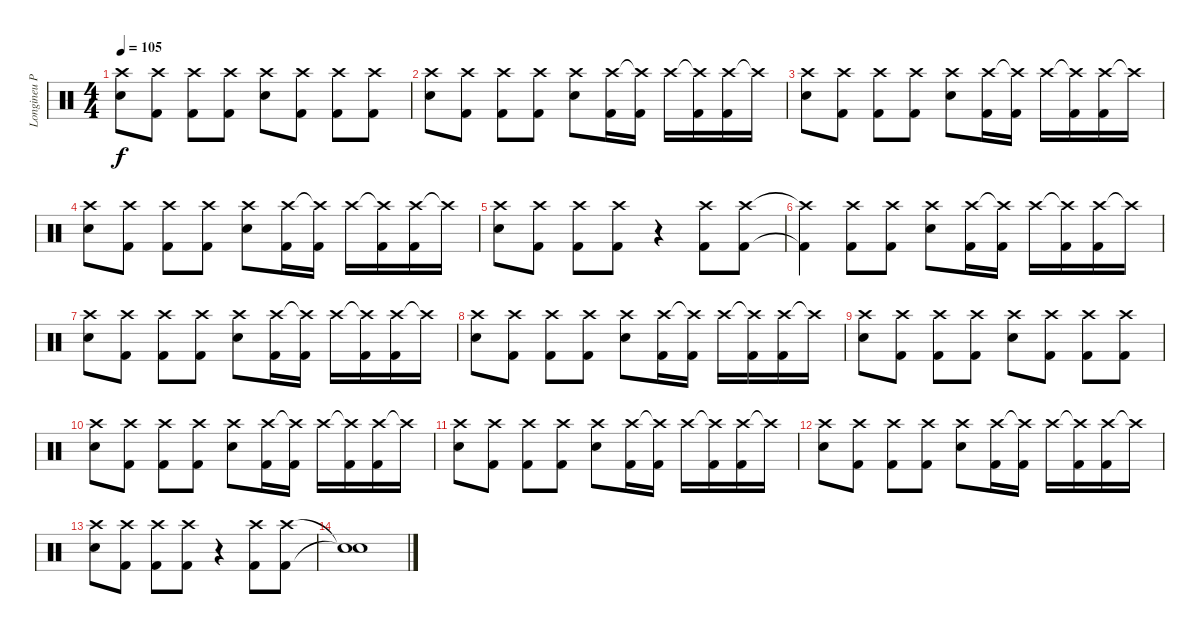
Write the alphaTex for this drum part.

\track ("Longineu Parsons III" "Longineu P") {instrument percussion}
\staff {score}
\articulation defaults
\ts (4 4)
\tempo 105
\clef neutral
\ks c
("Crash high (hit)" "Electric Snare (hit)").8{dy f} ("Crash high (hit)" "Kick (hit) 2").8 ("Crash high (hit)" "Kick (hit) 2").8 ("Crash high (hit)" "Kick (hit) 2").8 ("Crash high (hit)" "Electric Snare (hit)").8 ("Crash high (hit)" "Kick (hit) 2").8 ("Crash high (hit)" "Kick (hit) 2").8 ("Crash high (hit)" "Kick (hit) 2").8 |
("Crash high (hit)" "Electric Snare (hit)").8 ("Crash high (hit)" "Kick (hit) 2").8 ("Crash high (hit)" "Kick (hit) 2").8 ("Crash high (hit)" "Kick (hit) 2").8 ("Crash high (hit)" "Electric Snare (hit)").8 ("Crash high (hit)" "Kick (hit) 2").16 ("Crash high (hit)"{t} "Kick (hit) 2").16 "Crash high (hit)".16 ("Crash high (hit)"{t} "Kick (hit) 2").16 ("Crash high (hit)" "Kick (hit) 2").16 "Crash high (hit)"{t}.16 |
("Crash high (hit)" "Electric Snare (hit)").8 ("Crash high (hit)" "Kick (hit) 2").8 ("Crash high (hit)" "Kick (hit) 2").8 ("Crash high (hit)" "Kick (hit) 2").8 ("Crash high (hit)" "Electric Snare (hit)").8 ("Crash high (hit)" "Kick (hit) 2").16 ("Crash high (hit)"{t} "Kick (hit) 2").16 "Crash high (hit)".16 ("Crash high (hit)"{t} "Kick (hit) 2").16 ("Crash high (hit)" "Kick (hit) 2").16 "Crash high (hit)"{t}.16 |
("Crash high (hit)" "Electric Snare (hit)").8 ("Crash high (hit)" "Kick (hit) 2").8 ("Crash high (hit)" "Kick (hit) 2").8 ("Crash high (hit)" "Kick (hit) 2").8 ("Crash high (hit)" "Electric Snare (hit)").8 ("Crash high (hit)" "Kick (hit) 2").16 ("Crash high (hit)"{t} "Kick (hit) 2").16 "Crash high (hit)".16 ("Crash high (hit)"{t} "Kick (hit) 2").16 ("Crash high (hit)" "Kick (hit) 2").16 "Crash high (hit)"{t}.16 |
("Crash high (hit)" "Electric Snare (hit)").8 ("Crash high (hit)" "Kick (hit) 2").8 ("Crash high (hit)" "Kick (hit) 2").8 ("Crash high (hit)" "Kick (hit) 2").8 r.4 ("Crash high (hit)" "Kick (hit) 2").8 ("Crash high (hit)" "Kick (hit) 2").8 |
("Crash high (hit)"{t} "Kick (hit) 2"{t}).4 ("Crash high (hit)" "Kick (hit) 2").8 ("Crash high (hit)" "Kick (hit) 2").8 ("Crash high (hit)" "Electric Snare (hit)").8 ("Crash high (hit)" "Kick (hit) 2").16 ("Crash high (hit)"{t} "Kick (hit) 2").16 "Crash high (hit)".16 ("Crash high (hit)"{t} "Kick (hit) 2").16 ("Crash high (hit)" "Kick (hit) 2").16 "Crash high (hit)"{t}.16 |
("Crash high (hit)" "Electric Snare (hit)").8 ("Crash high (hit)" "Kick (hit) 2").8 ("Crash high (hit)" "Kick (hit) 2").8 ("Crash high (hit)" "Kick (hit) 2").8 ("Crash high (hit)" "Electric Snare (hit)").8 ("Crash high (hit)" "Kick (hit) 2").16 ("Crash high (hit)"{t} "Kick (hit) 2").16 "Crash high (hit)".16 ("Crash high (hit)"{t} "Kick (hit) 2").16 ("Crash high (hit)" "Kick (hit) 2").16 "Crash high (hit)"{t}.16 |
("Crash high (hit)" "Electric Snare (hit)").8 ("Crash high (hit)" "Kick (hit) 2").8 ("Crash high (hit)" "Kick (hit) 2").8 ("Crash high (hit)" "Kick (hit) 2").8 ("Crash high (hit)" "Electric Snare (hit)").8 ("Crash high (hit)" "Kick (hit) 2").16 ("Crash high (hit)"{t} "Kick (hit) 2").16 "Crash high (hit)".16 ("Crash high (hit)"{t} "Kick (hit) 2").16 ("Crash high (hit)" "Kick (hit) 2").16 "Crash high (hit)"{t}.16 |
("Crash high (hit)" "Electric Snare (hit)").8 ("Crash high (hit)" "Kick (hit) 2").8 ("Crash high (hit)" "Kick (hit) 2").8 ("Crash high (hit)" "Kick (hit) 2").8 ("Crash high (hit)" "Electric Snare (hit)").8 ("Crash high (hit)" "Kick (hit) 2").8 ("Crash high (hit)" "Kick (hit) 2").8 ("Crash high (hit)" "Kick (hit) 2").8 |
("Crash high (hit)" "Electric Snare (hit)").8 ("Crash high (hit)" "Kick (hit) 2").8 ("Crash high (hit)" "Kick (hit) 2").8 ("Crash high (hit)" "Kick (hit) 2").8 ("Crash high (hit)" "Electric Snare (hit)").8 ("Crash high (hit)" "Kick (hit) 2").16 ("Crash high (hit)"{t} "Kick (hit) 2").16 "Crash high (hit)".16 ("Crash high (hit)"{t} "Kick (hit) 2").16 ("Crash high (hit)" "Kick (hit) 2").16 "Crash high (hit)"{t}.16 |
("Crash high (hit)" "Electric Snare (hit)").8 ("Crash high (hit)" "Kick (hit) 2").8 ("Crash high (hit)" "Kick (hit) 2").8 ("Crash high (hit)" "Kick (hit) 2").8 ("Crash high (hit)" "Electric Snare (hit)").8 ("Crash high (hit)" "Kick (hit) 2").16 ("Crash high (hit)"{t} "Kick (hit) 2").16 "Crash high (hit)".16 ("Crash high (hit)"{t} "Kick (hit) 2").16 ("Crash high (hit)" "Kick (hit) 2").16 "Crash high (hit)"{t}.16 |
("Crash high (hit)" "Electric Snare (hit)").8 ("Crash high (hit)" "Kick (hit) 2").8 ("Crash high (hit)" "Kick (hit) 2").8 ("Crash high (hit)" "Kick (hit) 2").8 ("Crash high (hit)" "Electric Snare (hit)").8 ("Crash high (hit)" "Kick (hit) 2").16 ("Crash high (hit)"{t} "Kick (hit) 2").16 "Crash high (hit)".16 ("Crash high (hit)"{t} "Kick (hit) 2").16 ("Crash high (hit)" "Kick (hit) 2").16 "Crash high (hit)"{t}.16 |
("Crash high (hit)" "Electric Snare (hit)").8 ("Crash high (hit)" "Kick (hit) 2").8 ("Crash high (hit)" "Kick (hit) 2").8 ("Crash high (hit)" "Kick (hit) 2").8 r.4 ("Crash high (hit)" "Kick (hit) 2").8 ("Crash high (hit)" "Kick (hit) 2").8 |
("Snare (hit)"{t} "Snare (hit)"{t}).1
